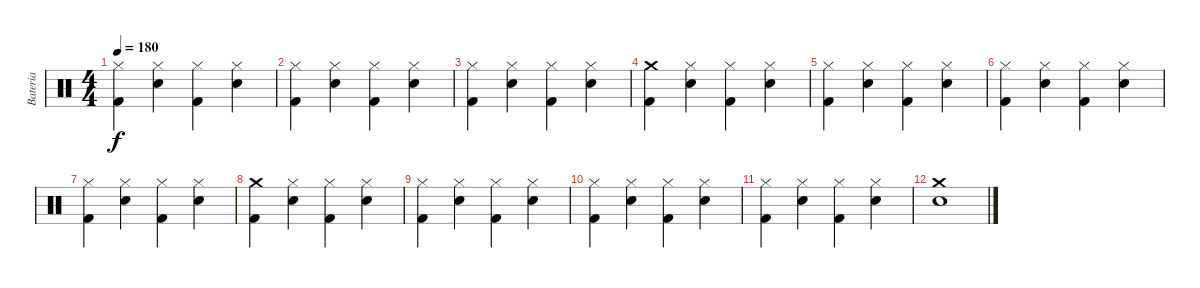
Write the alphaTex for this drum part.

\track ("Bateria" "Bateria") {instrument percussion}
\staff {score}
\articulation defaults
\ts (4 4)
\tempo 180
\clef neutral
\ks c
("Hi-Hat (closed)" "Kick (hit) 2").4{dy f} ("Hi-Hat (closed)" "Electric Snare (hit)").4 ("Hi-Hat (closed)" "Kick (hit) 2").4 ("Hi-Hat (closed)" "Electric Snare (hit)").4 |
("Hi-Hat (closed)" "Kick (hit) 2").4 ("Hi-Hat (closed)" "Electric Snare (hit)").4 ("Hi-Hat (closed)" "Kick (hit) 2").4 ("Hi-Hat (closed)" "Electric Snare (hit)").4 |
("Hi-Hat (closed)" "Kick (hit) 2").4 ("Hi-Hat (closed)" "Electric Snare (hit)").4 ("Hi-Hat (closed)" "Kick (hit) 2").4 ("Hi-Hat (closed)" "Electric Snare (hit)").4 |
("Crash medium (hit)" "Kick (hit) 2").4 ("Hi-Hat (closed)" "Electric Snare (hit)").4 ("Hi-Hat (closed)" "Kick (hit) 2").4 ("Hi-Hat (closed)" "Electric Snare (hit)").4 |
("Hi-Hat (closed)" "Kick (hit) 2").4 ("Hi-Hat (closed)" "Electric Snare (hit)").4 ("Hi-Hat (closed)" "Kick (hit) 2").4 ("Hi-Hat (closed)" "Electric Snare (hit)").4 |
("Hi-Hat (closed)" "Kick (hit) 2").4 ("Hi-Hat (closed)" "Electric Snare (hit)").4 ("Hi-Hat (closed)" "Kick (hit) 2").4 ("Hi-Hat (closed)" "Electric Snare (hit)").4 |
("Hi-Hat (closed)" "Kick (hit) 2").4 ("Hi-Hat (closed)" "Electric Snare (hit)").4 ("Hi-Hat (closed)" "Kick (hit) 2").4 ("Hi-Hat (closed)" "Electric Snare (hit)").4 |
("Crash medium (hit)" "Kick (hit) 2").4 ("Hi-Hat (closed)" "Electric Snare (hit)").4 ("Hi-Hat (closed)" "Kick (hit) 2").4 ("Hi-Hat (closed)" "Electric Snare (hit)").4 |
("Hi-Hat (closed)" "Kick (hit) 2").4 ("Hi-Hat (closed)" "Electric Snare (hit)").4 ("Hi-Hat (closed)" "Kick (hit) 2").4 ("Hi-Hat (closed)" "Electric Snare (hit)").4 |
("Hi-Hat (closed)" "Kick (hit) 2").4 ("Hi-Hat (closed)" "Electric Snare (hit)").4 ("Hi-Hat (closed)" "Kick (hit) 2").4 ("Hi-Hat (closed)" "Electric Snare (hit)").4 |
("Hi-Hat (closed)" "Kick (hit) 2").4 ("Hi-Hat (closed)" "Electric Snare (hit)").4 ("Hi-Hat (closed)" "Kick (hit) 2").4 ("Hi-Hat (closed)" "Electric Snare (hit)").4 |
("Crash medium (hit)" "Electric Snare (hit)").1
